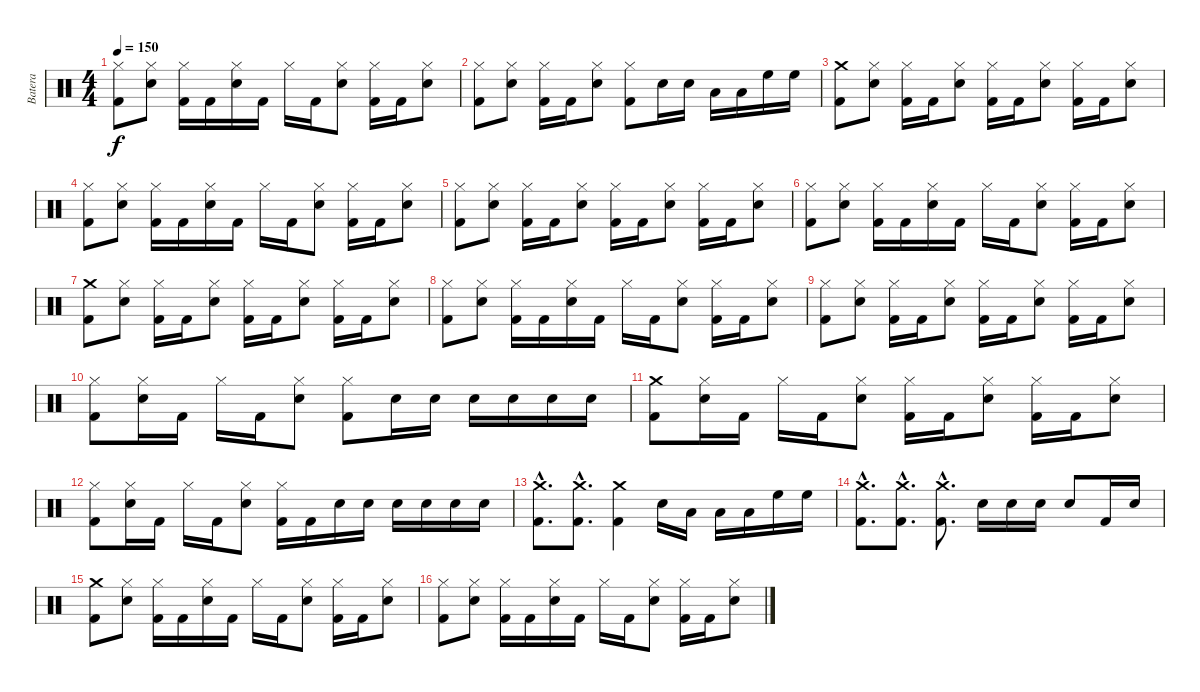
\track ("Batera" "Batera") {instrument percussion}
\staff {score}
\articulation defaults
\ts (4 4)
\tempo 150
\clef neutral
\ks c
("Kick (hit) 2" "Hi-Hat (closed)").8{dy f} ("Snare (hit) 2" "Hi-Hat (closed)").8 ("Kick (hit) 2" "Hi-Hat (closed)").16 "Kick (hit) 2".16 ("Snare (hit) 2" "Hi-Hat (closed)").16 "Kick (hit) 2".16 "Hi-Hat (closed)".16 "Kick (hit) 2".16 ("Snare (hit) 2" "Hi-Hat (closed)").8 ("Kick (hit) 2" "Hi-Hat (closed)").16 "Kick (hit) 2".16 ("Snare (hit) 2" "Hi-Hat (closed)").8 |
("Kick (hit) 2" "Hi-Hat (closed)").8 ("Snare (hit) 2" "Hi-Hat (closed)").8 ("Kick (hit) 2" "Hi-Hat (closed)").16 "Kick (hit) 2".16 ("Snare (hit) 2" "Hi-Hat (closed)").8 ("Kick (hit) 2" "Hi-Hat (closed)").8 "Snare (hit) 2".16 "Snare (hit) 2".16 "Low Tom (hit)".16 "Low Tom (hit)".16 "High Floor Tom (hit)".16 "High Floor Tom (hit)".16 |
("Kick (hit) 2" "Crash medium (hit)").8 ("Snare (hit) 2" "Hi-Hat (closed)").8 ("Kick (hit) 2" "Hi-Hat (closed)").16 "Kick (hit) 2".16 ("Snare (hit) 2" "Hi-Hat (closed)").8 ("Kick (hit) 2" "Hi-Hat (closed)").16 "Kick (hit) 2".16 ("Snare (hit) 2" "Hi-Hat (closed)").8 ("Kick (hit) 2" "Hi-Hat (closed)").16 "Kick (hit) 2".16 ("Snare (hit) 2" "Hi-Hat (closed)").8 |
("Kick (hit) 2" "Hi-Hat (closed)").8 ("Snare (hit) 2" "Hi-Hat (closed)").8 ("Kick (hit) 2" "Hi-Hat (closed)").16 "Kick (hit) 2".16 ("Snare (hit) 2" "Hi-Hat (closed)").16 "Kick (hit) 2".16 "Hi-Hat (closed)".16 "Kick (hit) 2".16 ("Snare (hit) 2" "Hi-Hat (closed)").8 ("Kick (hit) 2" "Hi-Hat (closed)").16 "Kick (hit) 2".16 ("Snare (hit) 2" "Hi-Hat (closed)").8 |
("Kick (hit) 2" "Hi-Hat (closed)").8 ("Snare (hit) 2" "Hi-Hat (closed)").8 ("Kick (hit) 2" "Hi-Hat (closed)").16 "Kick (hit) 2".16 ("Snare (hit) 2" "Hi-Hat (closed)").8 ("Kick (hit) 2" "Hi-Hat (closed)").16 "Kick (hit) 2".16 ("Snare (hit) 2" "Hi-Hat (closed)").8 ("Kick (hit) 2" "Hi-Hat (closed)").16 "Kick (hit) 2".16 ("Snare (hit) 2" "Hi-Hat (closed)").8 |
("Kick (hit) 2" "Hi-Hat (closed)").8 ("Snare (hit) 2" "Hi-Hat (closed)").8 ("Kick (hit) 2" "Hi-Hat (closed)").16 "Kick (hit) 2".16 ("Snare (hit) 2" "Hi-Hat (closed)").16 "Kick (hit) 2".16 "Hi-Hat (closed)".16 "Kick (hit) 2".16 ("Snare (hit) 2" "Hi-Hat (closed)").8 ("Kick (hit) 2" "Hi-Hat (closed)").16 "Kick (hit) 2".16 ("Snare (hit) 2" "Hi-Hat (closed)").8 |
("Kick (hit) 2" "Crash medium (hit)").8 ("Snare (hit) 2" "Hi-Hat (closed)").8 ("Kick (hit) 2" "Hi-Hat (closed)").16 "Kick (hit) 2".16 ("Snare (hit) 2" "Hi-Hat (closed)").8 ("Kick (hit) 2" "Hi-Hat (closed)").16 "Kick (hit) 2".16 ("Snare (hit) 2" "Hi-Hat (closed)").8 ("Kick (hit) 2" "Hi-Hat (closed)").16 "Kick (hit) 2".16 ("Snare (hit) 2" "Hi-Hat (closed)").8 |
("Kick (hit) 2" "Hi-Hat (closed)").8 ("Snare (hit) 2" "Hi-Hat (closed)").8 ("Kick (hit) 2" "Hi-Hat (closed)").16 "Kick (hit) 2".16 ("Snare (hit) 2" "Hi-Hat (closed)").16 "Kick (hit) 2".16 "Hi-Hat (closed)".16 "Kick (hit) 2".16 ("Snare (hit) 2" "Hi-Hat (closed)").8 ("Kick (hit) 2" "Hi-Hat (closed)").16 "Kick (hit) 2".16 ("Snare (hit) 2" "Hi-Hat (closed)").8 |
("Kick (hit) 2" "Hi-Hat (closed)").8 ("Snare (hit) 2" "Hi-Hat (closed)").8 ("Kick (hit) 2" "Hi-Hat (closed)").16 "Kick (hit) 2".16 ("Snare (hit) 2" "Hi-Hat (closed)").8 ("Kick (hit) 2" "Hi-Hat (closed)").16 "Kick (hit) 2".16 ("Snare (hit) 2" "Hi-Hat (closed)").8 ("Kick (hit) 2" "Hi-Hat (closed)").16 "Kick (hit) 2".16 ("Snare (hit) 2" "Hi-Hat (closed)").8 |
("Kick (hit) 2" "Hi-Hat (closed)").8 ("Snare (hit) 2" "Hi-Hat (closed)").16 "Kick (hit) 2".16 "Hi-Hat (closed)".16 "Kick (hit) 2".16 ("Snare (hit) 2" "Hi-Hat (closed)").8 ("Kick (hit) 2" "Hi-Hat (closed)").8 "Snare (hit) 2".16 "Snare (hit) 2".16 "Snare (hit) 2".16 "Snare (hit) 2".16 "Snare (hit) 2".16 "Snare (hit) 2".16 |
("Kick (hit) 2" "Crash medium (hit)").8 ("Snare (hit) 2" "Hi-Hat (closed)").16 "Kick (hit) 2".16 "Hi-Hat (closed)".16 "Kick (hit) 2".16 ("Snare (hit) 2" "Hi-Hat (closed)").8 ("Kick (hit) 2" "Hi-Hat (closed)").16 "Kick (hit) 2".16 ("Snare (hit) 2" "Hi-Hat (closed)").8 ("Kick (hit) 2" "Hi-Hat (closed)").16 "Kick (hit) 2".16 ("Snare (hit) 2" "Hi-Hat (closed)").8 |
("Kick (hit) 2" "Hi-Hat (closed)").8 ("Snare (hit) 2" "Hi-Hat (closed)").16 "Kick (hit) 2".16 "Hi-Hat (closed)".16 "Kick (hit) 2".16 ("Snare (hit) 2" "Hi-Hat (closed)").8 ("Kick (hit) 2" "Hi-Hat (closed)").16 "Kick (hit) 2".16 "Snare (hit) 2".16 "Snare (hit) 2".16 "Snare (hit) 2".16 "Snare (hit) 2".16 "Snare (hit) 2".16 "Snare (hit) 2".16 |
("Kick (hit) 2"{hac} "Crash medium (hit)"{hac}).8{d} ("Kick (hit) 2"{hac} "Crash medium (hit)"{hac}).8{d} ("Kick (hit) 2" "Crash medium (hit)").4 "Snare (hit) 2".16 "Low Tom (hit)".16 "Low Tom (hit)".16 "Low Tom (hit)".16 "High Floor Tom (hit)".16 "High Floor Tom (hit)".16 |
("Kick (hit) 2"{hac} "Crash medium (hit)"{hac}).8{d} ("Kick (hit) 2"{hac} "Crash medium (hit)"{hac}).8{d} ("Kick (hit) 2"{hac} "Crash medium (hit)"{hac}).8{d} "Snare (hit) 2".16 "Snare (hit) 2".16 "Snare (hit) 2".16 "Snare (hit) 2".8 "Kick (hit) 2".16 "Snare (hit) 2".16 |
("Kick (hit) 2" "Crash medium (hit)").8 ("Snare (hit) 2" "Hi-Hat (closed)").8 ("Kick (hit) 2" "Hi-Hat (closed)").16 "Kick (hit) 2".16 ("Snare (hit) 2" "Hi-Hat (closed)").16 "Kick (hit) 2".16 "Hi-Hat (closed)".16 "Kick (hit) 2".16 ("Snare (hit) 2" "Hi-Hat (closed)").8 ("Kick (hit) 2" "Hi-Hat (closed)").16 "Kick (hit) 2".16 ("Snare (hit) 2" "Hi-Hat (closed)").8 |
("Kick (hit) 2" "Hi-Hat (closed)").8 ("Snare (hit) 2" "Hi-Hat (closed)").8 ("Kick (hit) 2" "Hi-Hat (closed)").16 "Kick (hit) 2".16 ("Snare (hit) 2" "Hi-Hat (closed)").16 "Kick (hit) 2".16 "Hi-Hat (closed)".16 "Kick (hit) 2".16 ("Snare (hit) 2" "Hi-Hat (closed)").8 ("Kick (hit) 2" "Hi-Hat (closed)").16 "Kick (hit) 2".16 ("Snare (hit) 2" "Hi-Hat (closed)").8
